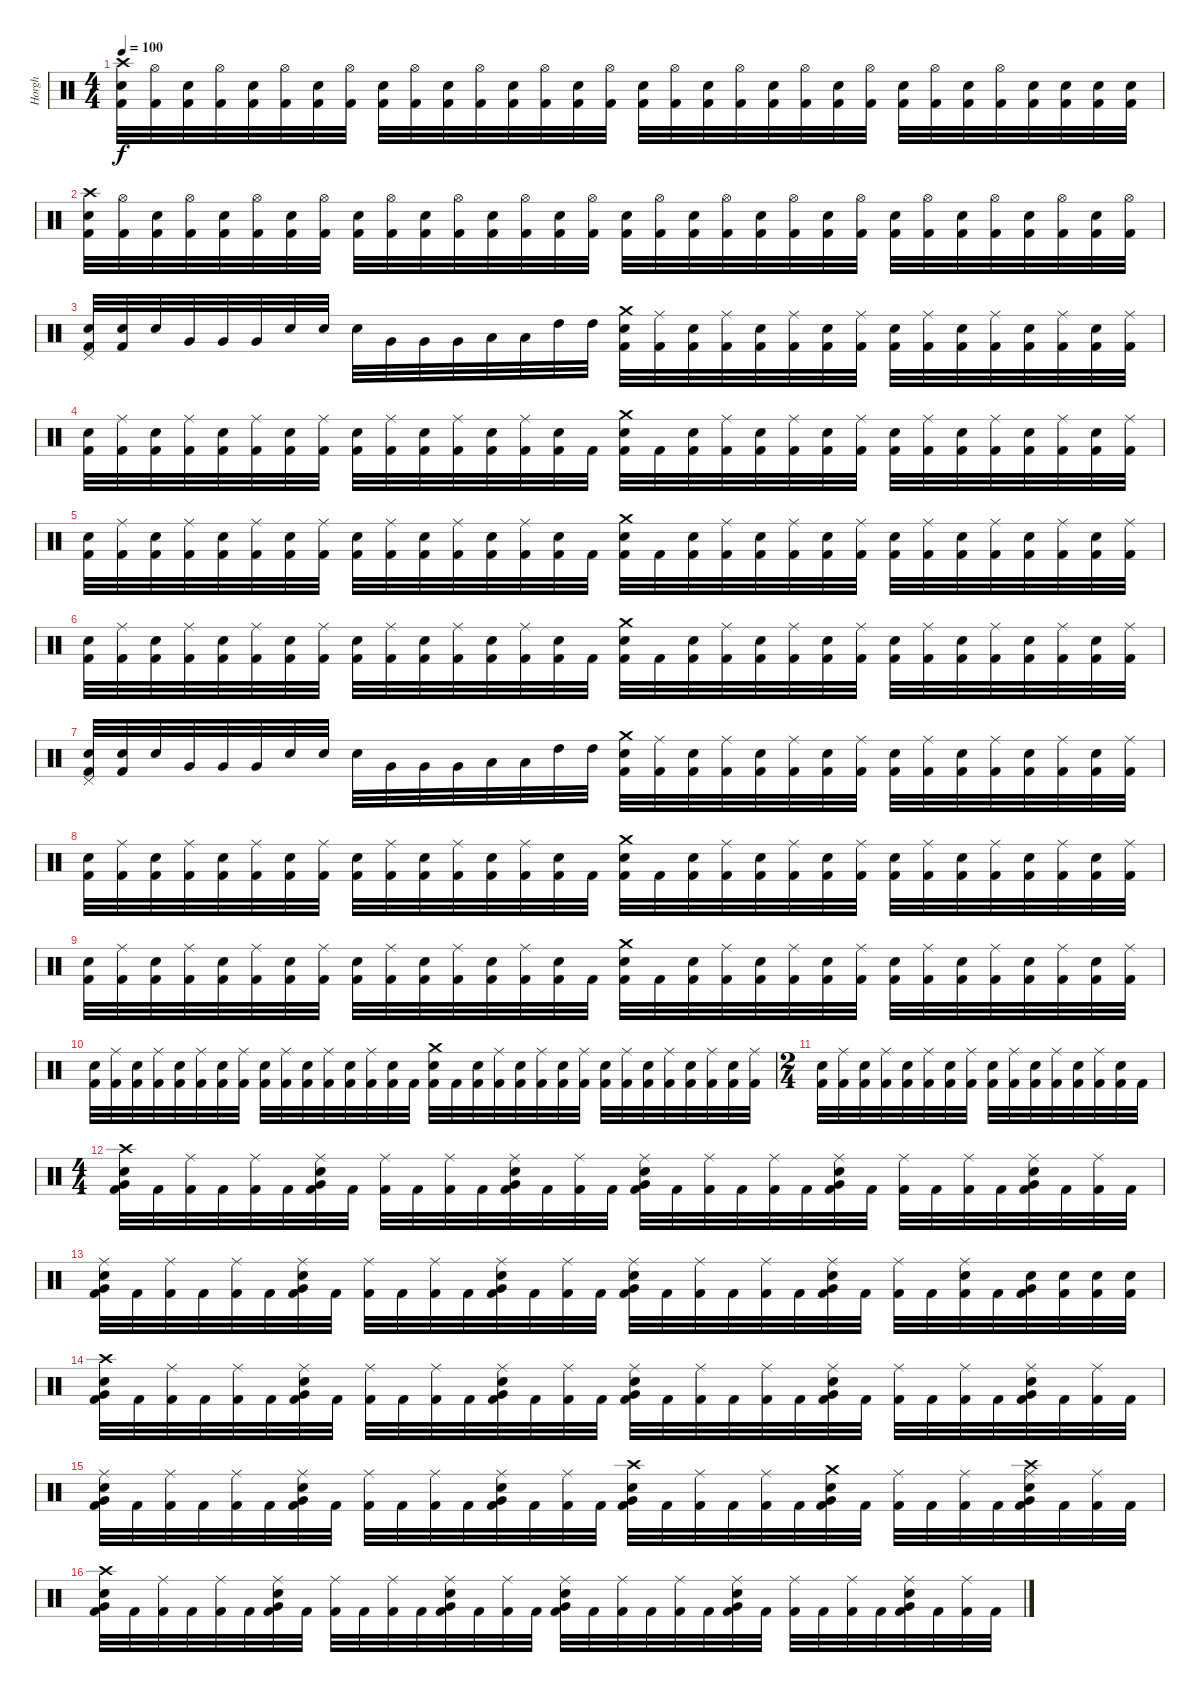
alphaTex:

\track ("Horgh" "Horgh") {instrument percussion}
\staff {score}
\articulation defaults
\ts (4 4)
\tempo 100
\clef neutral
\ks c
("Crash high (hit)" "Electric Snare (hit)" "Kick (hit) 2").32{dy f} ("Hi-Hat (open)" "Kick (hit) 2").32 ("Electric Snare (hit)" "Kick (hit) 2").32 ("Hi-Hat (open)" "Kick (hit) 2").32 ("Electric Snare (hit)" "Kick (hit) 2").32 ("Hi-Hat (open)" "Kick (hit) 2").32 ("Electric Snare (hit)" "Kick (hit) 2").32 ("Hi-Hat (open)" "Kick (hit) 2").32 ("Electric Snare (hit)" "Kick (hit) 2").32 ("Hi-Hat (open)" "Kick (hit) 2").32 ("Electric Snare (hit)" "Kick (hit) 2").32 ("Hi-Hat (open)" "Kick (hit) 2").32 ("Electric Snare (hit)" "Kick (hit) 2").32 ("Hi-Hat (open)" "Kick (hit) 2").32 ("Electric Snare (hit)" "Kick (hit) 2").32 ("Hi-Hat (open)" "Kick (hit) 2").32 ("Electric Snare (hit)" "Kick (hit) 2").32 ("Hi-Hat (open)" "Kick (hit) 2").32 ("Electric Snare (hit)" "Kick (hit) 2").32 ("Hi-Hat (open)" "Kick (hit) 2").32 ("Electric Snare (hit)" "Kick (hit) 2").32 ("Hi-Hat (open)" "Kick (hit) 2").32 ("Electric Snare (hit)" "Kick (hit) 2").32 ("Hi-Hat (open)" "Kick (hit) 2").32 ("Electric Snare (hit)" "Kick (hit) 2").32 ("Hi-Hat (open)" "Kick (hit) 2").32 ("Electric Snare (hit)" "Kick (hit) 2").32 ("Hi-Hat (open)" "Kick (hit) 2").32 ("Electric Snare (hit)" "Kick (hit) 2").32 ("Electric Snare (hit)" "Kick (hit) 2").32 ("Electric Snare (hit)" "Kick (hit) 2").32 ("Electric Snare (hit)" "Kick (hit) 2").32 |
("Crash high (hit)" "Electric Snare (hit)" "Kick (hit) 2").32 ("Hi-Hat (open)" "Kick (hit) 2").32 ("Electric Snare (hit)" "Kick (hit) 2").32 ("Hi-Hat (open)" "Kick (hit) 2").32 ("Electric Snare (hit)" "Kick (hit) 2").32 ("Hi-Hat (open)" "Kick (hit) 2").32 ("Electric Snare (hit)" "Kick (hit) 2").32 ("Hi-Hat (open)" "Kick (hit) 2").32 ("Electric Snare (hit)" "Kick (hit) 2").32 ("Hi-Hat (open)" "Kick (hit) 2").32 ("Electric Snare (hit)" "Kick (hit) 2").32 ("Hi-Hat (open)" "Kick (hit) 2").32 ("Electric Snare (hit)" "Kick (hit) 2").32 ("Hi-Hat (open)" "Kick (hit) 2").32 ("Electric Snare (hit)" "Kick (hit) 2").32 ("Hi-Hat (open)" "Kick (hit) 2").32 ("Electric Snare (hit)" "Kick (hit) 2").32 ("Hi-Hat (open)" "Kick (hit) 2").32 ("Electric Snare (hit)" "Kick (hit) 2").32 ("Hi-Hat (open)" "Kick (hit) 2").32 ("Electric Snare (hit)" "Kick (hit) 2").32 ("Hi-Hat (open)" "Kick (hit) 2").32 ("Electric Snare (hit)" "Kick (hit) 2").32 ("Hi-Hat (open)" "Kick (hit) 2").32 ("Electric Snare (hit)" "Kick (hit) 2").32 ("Hi-Hat (open)" "Kick (hit) 2").32 ("Electric Snare (hit)" "Kick (hit) 2").32 ("Hi-Hat (open)" "Kick (hit) 2").32 ("Electric Snare (hit)" "Kick (hit) 2").32 ("Hi-Hat (open)" "Kick (hit) 2").32 ("Electric Snare (hit)" "Kick (hit) 2").32 ("Hi-Hat (open)" "Kick (hit) 2").32 |
("Pedal Hi-Hat (hit)" "Electric Snare (hit)" "Kick (hit) 2").32 ("Electric Snare (hit)" "Kick (hit) 2").32 "Electric Snare (hit)".32 "Very Low Tom (hit)".32 "Very Low Tom (hit)".32 "Very Low Tom (hit)".32 "Electric Snare (hit)".32 "Electric Snare (hit)".32 "Electric Snare (hit)".32 "Very Low Tom (hit)".32 "Very Low Tom (hit)".32 "Very Low Tom (hit)".32 "Low Tom (hit)".32 "Low Tom (hit)".32 "High Tom (hit)".32 "High Tom (hit)".32 ("Crash medium (hit)" "Electric Snare (hit)" "Kick (hit) 2").32 ("Ride (middle)" "Kick (hit) 2").32 ("Electric Snare (hit)" "Kick (hit) 2").32 ("Ride (middle)" "Kick (hit) 2").32 ("Electric Snare (hit)" "Kick (hit) 2").32 ("Ride (middle)" "Kick (hit) 2").32 ("Electric Snare (hit)" "Kick (hit) 2").32 ("Ride (middle)" "Kick (hit) 2").32 ("Electric Snare (hit)" "Kick (hit) 2").32 ("Ride (middle)" "Kick (hit) 2").32 ("Electric Snare (hit)" "Kick (hit) 2").32 ("Ride (middle)" "Kick (hit) 2").32 ("Electric Snare (hit)" "Kick (hit) 2").32 ("Ride (middle)" "Kick (hit) 2").32 ("Electric Snare (hit)" "Kick (hit) 2").32 ("Ride (middle)" "Kick (hit) 2").32 |
("Electric Snare (hit)" "Kick (hit) 2").32 ("Ride (middle)" "Kick (hit) 2").32 ("Electric Snare (hit)" "Kick (hit) 2").32 ("Ride (middle)" "Kick (hit) 2").32 ("Electric Snare (hit)" "Kick (hit) 2").32 ("Ride (middle)" "Kick (hit) 2").32 ("Electric Snare (hit)" "Kick (hit) 2").32 ("Ride (middle)" "Kick (hit) 2").32 ("Electric Snare (hit)" "Kick (hit) 2").32 ("Ride (middle)" "Kick (hit) 2").32 ("Electric Snare (hit)" "Kick (hit) 2").32 ("Ride (middle)" "Kick (hit) 2").32 ("Electric Snare (hit)" "Kick (hit) 2").32 ("Ride (middle)" "Kick (hit) 2").32 ("Electric Snare (hit)" "Kick (hit) 2").32 "Kick (hit) 2".32 ("Crash medium (hit)" "Electric Snare (hit)" "Kick (hit) 2").32 "Kick (hit) 2".32 ("Electric Snare (hit)" "Kick (hit) 2").32 ("Ride (middle)" "Kick (hit) 2").32 ("Electric Snare (hit)" "Kick (hit) 2").32 ("Ride (middle)" "Kick (hit) 2").32 ("Electric Snare (hit)" "Kick (hit) 2").32 ("Ride (middle)" "Kick (hit) 2").32 ("Electric Snare (hit)" "Kick (hit) 2").32 ("Ride (middle)" "Kick (hit) 2").32 ("Electric Snare (hit)" "Kick (hit) 2").32 ("Ride (middle)" "Kick (hit) 2").32 ("Electric Snare (hit)" "Kick (hit) 2").32 ("Ride (middle)" "Kick (hit) 2").32 ("Electric Snare (hit)" "Kick (hit) 2").32 ("Ride (middle)" "Kick (hit) 2").32 |
("Electric Snare (hit)" "Kick (hit) 2").32 ("Ride (middle)" "Kick (hit) 2").32 ("Electric Snare (hit)" "Kick (hit) 2").32 ("Ride (middle)" "Kick (hit) 2").32 ("Electric Snare (hit)" "Kick (hit) 2").32 ("Ride (middle)" "Kick (hit) 2").32 ("Electric Snare (hit)" "Kick (hit) 2").32 ("Ride (middle)" "Kick (hit) 2").32 ("Electric Snare (hit)" "Kick (hit) 2").32 ("Ride (middle)" "Kick (hit) 2").32 ("Electric Snare (hit)" "Kick (hit) 2").32 ("Ride (middle)" "Kick (hit) 2").32 ("Electric Snare (hit)" "Kick (hit) 2").32 ("Ride (middle)" "Kick (hit) 2").32 ("Electric Snare (hit)" "Kick (hit) 2").32 "Kick (hit) 2".32 ("Crash medium (hit)" "Electric Snare (hit)" "Kick (hit) 2").32 "Kick (hit) 2".32 ("Electric Snare (hit)" "Kick (hit) 2").32 ("Ride (middle)" "Kick (hit) 2").32 ("Electric Snare (hit)" "Kick (hit) 2").32 ("Ride (middle)" "Kick (hit) 2").32 ("Electric Snare (hit)" "Kick (hit) 2").32 ("Ride (middle)" "Kick (hit) 2").32 ("Electric Snare (hit)" "Kick (hit) 2").32 ("Ride (middle)" "Kick (hit) 2").32 ("Electric Snare (hit)" "Kick (hit) 2").32 ("Ride (middle)" "Kick (hit) 2").32 ("Electric Snare (hit)" "Kick (hit) 2").32 ("Ride (middle)" "Kick (hit) 2").32 ("Electric Snare (hit)" "Kick (hit) 2").32 ("Ride (middle)" "Kick (hit) 2").32 |
("Electric Snare (hit)" "Kick (hit) 2").32 ("Ride (middle)" "Kick (hit) 2").32 ("Electric Snare (hit)" "Kick (hit) 2").32 ("Ride (middle)" "Kick (hit) 2").32 ("Electric Snare (hit)" "Kick (hit) 2").32 ("Ride (middle)" "Kick (hit) 2").32 ("Electric Snare (hit)" "Kick (hit) 2").32 ("Ride (middle)" "Kick (hit) 2").32 ("Electric Snare (hit)" "Kick (hit) 2").32 ("Ride (middle)" "Kick (hit) 2").32 ("Electric Snare (hit)" "Kick (hit) 2").32 ("Ride (middle)" "Kick (hit) 2").32 ("Electric Snare (hit)" "Kick (hit) 2").32 ("Ride (middle)" "Kick (hit) 2").32 ("Electric Snare (hit)" "Kick (hit) 2").32 "Kick (hit) 2".32 ("Crash medium (hit)" "Electric Snare (hit)" "Kick (hit) 2").32 "Kick (hit) 2".32 ("Electric Snare (hit)" "Kick (hit) 2").32 ("Ride (middle)" "Kick (hit) 2").32 ("Electric Snare (hit)" "Kick (hit) 2").32 ("Ride (middle)" "Kick (hit) 2").32 ("Electric Snare (hit)" "Kick (hit) 2").32 ("Ride (middle)" "Kick (hit) 2").32 ("Electric Snare (hit)" "Kick (hit) 2").32 ("Ride (middle)" "Kick (hit) 2").32 ("Electric Snare (hit)" "Kick (hit) 2").32 ("Ride (middle)" "Kick (hit) 2").32 ("Electric Snare (hit)" "Kick (hit) 2").32 ("Ride (middle)" "Kick (hit) 2").32 ("Electric Snare (hit)" "Kick (hit) 2").32 ("Ride (middle)" "Kick (hit) 2").32 |
("Pedal Hi-Hat (hit)" "Electric Snare (hit)" "Kick (hit) 2").32 ("Electric Snare (hit)" "Kick (hit) 2").32 "Electric Snare (hit)".32 "Very Low Tom (hit)".32 "Very Low Tom (hit)".32 "Very Low Tom (hit)".32 "Electric Snare (hit)".32 "Electric Snare (hit)".32 "Electric Snare (hit)".32 "Very Low Tom (hit)".32 "Very Low Tom (hit)".32 "Very Low Tom (hit)".32 "Low Tom (hit)".32 "Low Tom (hit)".32 "High Tom (hit)".32 "High Tom (hit)".32 ("Crash medium (hit)" "Electric Snare (hit)" "Kick (hit) 2").32 ("Ride (middle)" "Kick (hit) 2").32 ("Electric Snare (hit)" "Kick (hit) 2").32 ("Ride (middle)" "Kick (hit) 2").32 ("Electric Snare (hit)" "Kick (hit) 2").32 ("Ride (middle)" "Kick (hit) 2").32 ("Electric Snare (hit)" "Kick (hit) 2").32 ("Ride (middle)" "Kick (hit) 2").32 ("Electric Snare (hit)" "Kick (hit) 2").32 ("Ride (middle)" "Kick (hit) 2").32 ("Electric Snare (hit)" "Kick (hit) 2").32 ("Ride (middle)" "Kick (hit) 2").32 ("Electric Snare (hit)" "Kick (hit) 2").32 ("Ride (middle)" "Kick (hit) 2").32 ("Electric Snare (hit)" "Kick (hit) 2").32 ("Ride (middle)" "Kick (hit) 2").32 |
("Electric Snare (hit)" "Kick (hit) 2").32 ("Ride (middle)" "Kick (hit) 2").32 ("Electric Snare (hit)" "Kick (hit) 2").32 ("Ride (middle)" "Kick (hit) 2").32 ("Electric Snare (hit)" "Kick (hit) 2").32 ("Ride (middle)" "Kick (hit) 2").32 ("Electric Snare (hit)" "Kick (hit) 2").32 ("Ride (middle)" "Kick (hit) 2").32 ("Electric Snare (hit)" "Kick (hit) 2").32 ("Ride (middle)" "Kick (hit) 2").32 ("Electric Snare (hit)" "Kick (hit) 2").32 ("Ride (middle)" "Kick (hit) 2").32 ("Electric Snare (hit)" "Kick (hit) 2").32 ("Ride (middle)" "Kick (hit) 2").32 ("Electric Snare (hit)" "Kick (hit) 2").32 "Kick (hit) 2".32 ("Crash medium (hit)" "Electric Snare (hit)" "Kick (hit) 2").32 "Kick (hit) 2".32 ("Electric Snare (hit)" "Kick (hit) 2").32 ("Ride (middle)" "Kick (hit) 2").32 ("Electric Snare (hit)" "Kick (hit) 2").32 ("Ride (middle)" "Kick (hit) 2").32 ("Electric Snare (hit)" "Kick (hit) 2").32 ("Ride (middle)" "Kick (hit) 2").32 ("Electric Snare (hit)" "Kick (hit) 2").32 ("Ride (middle)" "Kick (hit) 2").32 ("Electric Snare (hit)" "Kick (hit) 2").32 ("Ride (middle)" "Kick (hit) 2").32 ("Electric Snare (hit)" "Kick (hit) 2").32 ("Ride (middle)" "Kick (hit) 2").32 ("Electric Snare (hit)" "Kick (hit) 2").32 ("Ride (middle)" "Kick (hit) 2").32 |
("Electric Snare (hit)" "Kick (hit) 2").32 ("Ride (middle)" "Kick (hit) 2").32 ("Electric Snare (hit)" "Kick (hit) 2").32 ("Ride (middle)" "Kick (hit) 2").32 ("Electric Snare (hit)" "Kick (hit) 2").32 ("Ride (middle)" "Kick (hit) 2").32 ("Electric Snare (hit)" "Kick (hit) 2").32 ("Ride (middle)" "Kick (hit) 2").32 ("Electric Snare (hit)" "Kick (hit) 2").32 ("Ride (middle)" "Kick (hit) 2").32 ("Electric Snare (hit)" "Kick (hit) 2").32 ("Ride (middle)" "Kick (hit) 2").32 ("Electric Snare (hit)" "Kick (hit) 2").32 ("Ride (middle)" "Kick (hit) 2").32 ("Electric Snare (hit)" "Kick (hit) 2").32 "Kick (hit) 2".32 ("Crash medium (hit)" "Electric Snare (hit)" "Kick (hit) 2").32 "Kick (hit) 2".32 ("Electric Snare (hit)" "Kick (hit) 2").32 ("Ride (middle)" "Kick (hit) 2").32 ("Electric Snare (hit)" "Kick (hit) 2").32 ("Ride (middle)" "Kick (hit) 2").32 ("Electric Snare (hit)" "Kick (hit) 2").32 ("Ride (middle)" "Kick (hit) 2").32 ("Electric Snare (hit)" "Kick (hit) 2").32 ("Ride (middle)" "Kick (hit) 2").32 ("Electric Snare (hit)" "Kick (hit) 2").32 ("Ride (middle)" "Kick (hit) 2").32 ("Electric Snare (hit)" "Kick (hit) 2").32 ("Ride (middle)" "Kick (hit) 2").32 ("Electric Snare (hit)" "Kick (hit) 2").32 ("Ride (middle)" "Kick (hit) 2").32 |
("Electric Snare (hit)" "Kick (hit) 2").32 ("Ride (middle)" "Kick (hit) 2").32 ("Electric Snare (hit)" "Kick (hit) 2").32 ("Ride (middle)" "Kick (hit) 2").32 ("Electric Snare (hit)" "Kick (hit) 2").32 ("Ride (middle)" "Kick (hit) 2").32 ("Electric Snare (hit)" "Kick (hit) 2").32 ("Ride (middle)" "Kick (hit) 2").32 ("Electric Snare (hit)" "Kick (hit) 2").32 ("Ride (middle)" "Kick (hit) 2").32 ("Electric Snare (hit)" "Kick (hit) 2").32 ("Ride (middle)" "Kick (hit) 2").32 ("Electric Snare (hit)" "Kick (hit) 2").32 ("Ride (middle)" "Kick (hit) 2").32 ("Electric Snare (hit)" "Kick (hit) 2").32 "Kick (hit) 2".32 ("Crash medium (hit)" "Electric Snare (hit)" "Kick (hit) 2").32 "Kick (hit) 2".32 ("Electric Snare (hit)" "Kick (hit) 2").32 ("Ride (middle)" "Kick (hit) 2").32 ("Electric Snare (hit)" "Kick (hit) 2").32 ("Ride (middle)" "Kick (hit) 2").32 ("Electric Snare (hit)" "Kick (hit) 2").32 ("Ride (middle)" "Kick (hit) 2").32 ("Electric Snare (hit)" "Kick (hit) 2").32 ("Ride (middle)" "Kick (hit) 2").32 ("Electric Snare (hit)" "Kick (hit) 2").32 ("Ride (middle)" "Kick (hit) 2").32 ("Electric Snare (hit)" "Kick (hit) 2").32 ("Ride (middle)" "Kick (hit) 2").32 ("Electric Snare (hit)" "Kick (hit) 2").32 ("Ride (middle)" "Kick (hit) 2").32 |
\ts (2 4)
("Electric Snare (hit)" "Kick (hit) 2").32 ("Ride (middle)" "Kick (hit) 2").32 ("Electric Snare (hit)" "Kick (hit) 2").32 ("Ride (middle)" "Kick (hit) 2").32 ("Electric Snare (hit)" "Kick (hit) 2").32 ("Ride (middle)" "Kick (hit) 2").32 ("Electric Snare (hit)" "Kick (hit) 2").32 ("Ride (middle)" "Kick (hit) 2").32 ("Electric Snare (hit)" "Kick (hit) 2").32 ("Ride (middle)" "Kick (hit) 2").32 ("Electric Snare (hit)" "Kick (hit) 2").32 ("Ride (middle)" "Kick (hit) 2").32 ("Electric Snare (hit)" "Kick (hit) 2").32 ("Ride (middle)" "Kick (hit) 2").32 ("Electric Snare (hit)" "Kick (hit) 2").32 "Kick (hit) 2".32 |
\ts (4 4)
("Crash high (hit)" "Electric Snare (hit)" "Very Low Tom (hit)" "Kick (hit) 2").32 "Kick (hit) 2".32 ("Ride (middle)" "Kick (hit) 2").32 "Kick (hit) 2".32 ("Ride (middle)" "Kick (hit) 2").32 "Kick (hit) 2".32 ("Ride (middle)" "Electric Snare (hit)" "Very Low Tom (hit)" "Kick (hit) 2").32 "Kick (hit) 2".32 ("Ride (middle)" "Kick (hit) 2").32 "Kick (hit) 2".32 ("Ride (middle)" "Kick (hit) 2").32 "Kick (hit) 2".32 ("Ride (middle)" "Electric Snare (hit)" "Very Low Tom (hit)" "Kick (hit) 2").32 "Kick (hit) 2".32 ("Ride (middle)" "Kick (hit) 2").32 "Kick (hit) 2".32 ("Ride (middle)" "Electric Snare (hit)" "Very Low Tom (hit)" "Kick (hit) 2").32 "Kick (hit) 2".32 ("Ride (middle)" "Kick (hit) 2").32 "Kick (hit) 2".32 ("Ride (middle)" "Kick (hit) 2").32 "Kick (hit) 2".32 ("Ride (middle)" "Electric Snare (hit)" "Very Low Tom (hit)" "Kick (hit) 2").32 "Kick (hit) 2".32 ("Ride (middle)" "Kick (hit) 2").32 "Kick (hit) 2".32 ("Ride (middle)" "Kick (hit) 2").32 "Kick (hit) 2".32 ("Ride (middle)" "Electric Snare (hit)" "Very Low Tom (hit)" "Kick (hit) 2").32 "Kick (hit) 2".32 ("Ride (middle)" "Kick (hit) 2").32 "Kick (hit) 2".32 |
("Ride (middle)" "Electric Snare (hit)" "Very Low Tom (hit)" "Kick (hit) 2").32 "Kick (hit) 2".32 ("Ride (middle)" "Kick (hit) 2").32 "Kick (hit) 2".32 ("Ride (middle)" "Kick (hit) 2").32 "Kick (hit) 2".32 ("Ride (middle)" "Electric Snare (hit)" "Very Low Tom (hit)" "Kick (hit) 2").32 "Kick (hit) 2".32 ("Ride (middle)" "Kick (hit) 2").32 "Kick (hit) 2".32 ("Ride (middle)" "Kick (hit) 2").32 "Kick (hit) 2".32 ("Ride (middle)" "Electric Snare (hit)" "Very Low Tom (hit)" "Kick (hit) 2").32 "Kick (hit) 2".32 ("Ride (middle)" "Kick (hit) 2").32 "Kick (hit) 2".32 ("Ride (middle)" "Electric Snare (hit)" "Very Low Tom (hit)" "Kick (hit) 2").32 "Kick (hit) 2".32 ("Ride (middle)" "Kick (hit) 2").32 "Kick (hit) 2".32 ("Ride (middle)" "Kick (hit) 2").32 "Kick (hit) 2".32 ("Ride (middle)" "Electric Snare (hit)" "Very Low Tom (hit)" "Kick (hit) 2").32 "Kick (hit) 2".32 ("Ride (middle)" "Kick (hit) 2").32 "Kick (hit) 2".32 ("Ride (middle)" "Electric Snare (hit)" "Kick (hit) 2").32 "Kick (hit) 2".32 ("Electric Snare (hit)" "Very Low Tom (hit)" "Kick (hit) 2").32 ("Electric Snare (hit)" "Kick (hit) 2").32 ("Electric Snare (hit)" "Kick (hit) 2").32 ("Electric Snare (hit)" "Kick (hit) 2").32 |
("Crash high (hit)" "Electric Snare (hit)" "Very Low Tom (hit)" "Kick (hit) 2").32 "Kick (hit) 2".32 ("Ride (middle)" "Kick (hit) 2").32 "Kick (hit) 2".32 ("Ride (middle)" "Kick (hit) 2").32 "Kick (hit) 2".32 ("Ride (middle)" "Electric Snare (hit)" "Very Low Tom (hit)" "Kick (hit) 2").32 "Kick (hit) 2".32 ("Ride (middle)" "Kick (hit) 2").32 "Kick (hit) 2".32 ("Ride (middle)" "Kick (hit) 2").32 "Kick (hit) 2".32 ("Ride (middle)" "Electric Snare (hit)" "Very Low Tom (hit)" "Kick (hit) 2").32 "Kick (hit) 2".32 ("Ride (middle)" "Kick (hit) 2").32 "Kick (hit) 2".32 ("Ride (middle)" "Electric Snare (hit)" "Very Low Tom (hit)" "Kick (hit) 2").32 "Kick (hit) 2".32 ("Ride (middle)" "Kick (hit) 2").32 "Kick (hit) 2".32 ("Ride (middle)" "Kick (hit) 2").32 "Kick (hit) 2".32 ("Ride (middle)" "Electric Snare (hit)" "Very Low Tom (hit)" "Kick (hit) 2").32 "Kick (hit) 2".32 ("Ride (middle)" "Kick (hit) 2").32 "Kick (hit) 2".32 ("Ride (middle)" "Kick (hit) 2").32 "Kick (hit) 2".32 ("Ride (middle)" "Electric Snare (hit)" "Very Low Tom (hit)" "Kick (hit) 2").32 "Kick (hit) 2".32 ("Ride (middle)" "Kick (hit) 2").32 "Kick (hit) 2".32 |
("Ride (middle)" "Electric Snare (hit)" "Very Low Tom (hit)" "Kick (hit) 2").32 "Kick (hit) 2".32 ("Ride (middle)" "Kick (hit) 2").32 "Kick (hit) 2".32 ("Ride (middle)" "Kick (hit) 2").32 "Kick (hit) 2".32 ("Ride (middle)" "Electric Snare (hit)" "Very Low Tom (hit)" "Kick (hit) 2").32 "Kick (hit) 2".32 ("Ride (middle)" "Kick (hit) 2").32 "Kick (hit) 2".32 ("Ride (middle)" "Kick (hit) 2").32 "Kick (hit) 2".32 ("Ride (middle)" "Electric Snare (hit)" "Very Low Tom (hit)" "Kick (hit) 2").32 "Kick (hit) 2".32 ("Ride (middle)" "Kick (hit) 2").32 "Kick (hit) 2".32 ("Crash high (hit)" "Electric Snare (hit)" "Very Low Tom (hit)" "Kick (hit) 2").32 "Kick (hit) 2".32 ("Ride (middle)" "Kick (hit) 2").32 "Kick (hit) 2".32 ("Ride (middle)" "Kick (hit) 2").32 "Kick (hit) 2".32 ("Crash medium (hit)" "Electric Snare (hit)" "Very Low Tom (hit)" "Kick (hit) 2").32 "Kick (hit) 2".32 ("Ride (middle)" "Kick (hit) 2").32 "Kick (hit) 2".32 ("Ride (middle)" "Kick (hit) 2").32 "Kick (hit) 2".32 ("Crash high (hit)" "Ride (middle)" "Electric Snare (hit)" "Very Low Tom (hit)" "Kick (hit) 2").32 "Kick (hit) 2".32 ("Ride (middle)" "Kick (hit) 2").32 "Kick (hit) 2".32 |
("Crash high (hit)" "Electric Snare (hit)" "Very Low Tom (hit)" "Kick (hit) 2").32 "Kick (hit) 2".32 ("Ride (middle)" "Kick (hit) 2").32 "Kick (hit) 2".32 ("Ride (middle)" "Kick (hit) 2").32 "Kick (hit) 2".32 ("Ride (middle)" "Electric Snare (hit)" "Very Low Tom (hit)" "Kick (hit) 2").32 "Kick (hit) 2".32 ("Ride (middle)" "Kick (hit) 2").32 "Kick (hit) 2".32 ("Ride (middle)" "Kick (hit) 2").32 "Kick (hit) 2".32 ("Ride (middle)" "Electric Snare (hit)" "Very Low Tom (hit)" "Kick (hit) 2").32 "Kick (hit) 2".32 ("Ride (middle)" "Kick (hit) 2").32 "Kick (hit) 2".32 ("Ride (middle)" "Electric Snare (hit)" "Very Low Tom (hit)" "Kick (hit) 2").32 "Kick (hit) 2".32 ("Ride (middle)" "Kick (hit) 2").32 "Kick (hit) 2".32 ("Ride (middle)" "Kick (hit) 2").32 "Kick (hit) 2".32 ("Ride (middle)" "Electric Snare (hit)" "Very Low Tom (hit)" "Kick (hit) 2").32 "Kick (hit) 2".32 ("Ride (middle)" "Kick (hit) 2").32 "Kick (hit) 2".32 ("Ride (middle)" "Kick (hit) 2").32 "Kick (hit) 2".32 ("Ride (middle)" "Electric Snare (hit)" "Very Low Tom (hit)" "Kick (hit) 2").32 "Kick (hit) 2".32 ("Ride (middle)" "Kick (hit) 2").32 "Kick (hit) 2".32
